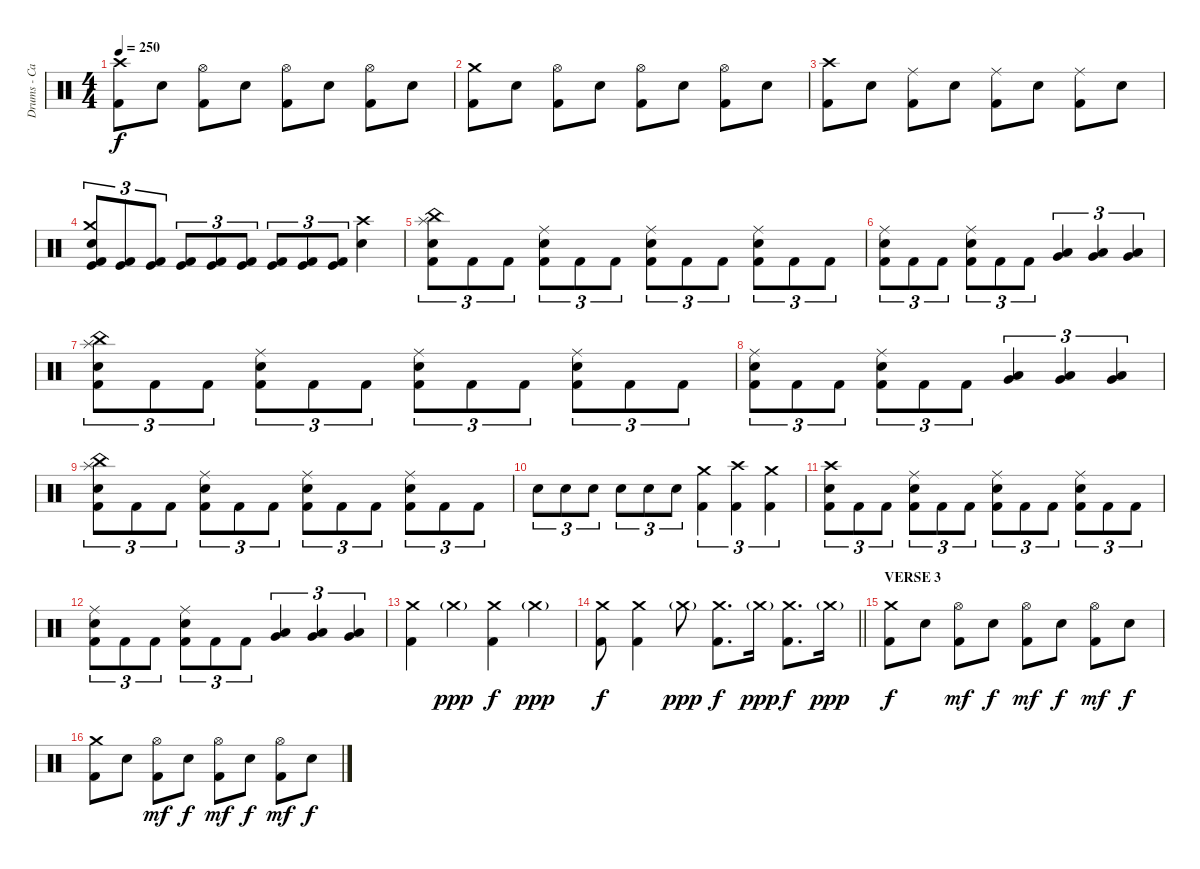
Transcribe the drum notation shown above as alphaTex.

\track ("Drums - Carlos Cruz" "Drums - Ca") {instrument percussion}
\staff {score}
\articulation defaults
\ts (4 4)
\tempo 250
\clef neutral
\ks c
("Crash high (hit)" "Kick (hit) 2").8{dy f} "Snare (hit) 2".8 ("Hi-Hat (open)" "Kick (hit) 2").8 "Snare (hit) 2".8 ("Hi-Hat (open)" "Kick (hit) 2").8 "Snare (hit) 2".8 ("Hi-Hat (open)" "Kick (hit) 2").8 "Snare (hit) 2".8 |
("Crash medium (hit)" "Kick (hit) 2").8 "Snare (hit) 2".8 ("Hi-Hat (open)" "Kick (hit) 2").8 "Snare (hit) 2".8 ("Hi-Hat (open)" "Kick (hit) 2").8 "Snare (hit) 2".8 ("Hi-Hat (open)" "Kick (hit) 2").8 "Snare (hit) 2".8 |
("Crash high (hit)" "Kick (hit) 2").8 "Snare (hit) 2".8 ("Ride (middle)" "Kick (hit) 2").8 "Snare (hit) 2".8 ("Ride (middle)" "Kick (hit) 2").8 "Snare (hit) 2".8 ("Ride (middle)" "Kick (hit) 2").8 "Snare (hit) 2".8 |
("Crash medium (hit)" "Snare (hit) 2" "Kick (hit)" "Kick (hit) 2").8{tu (3 2)} ("Kick (hit)" "Kick (hit) 2").8{tu (3 2)} ("Kick (hit)" "Kick (hit) 2").8{tu (3 2)} ("Kick (hit)" "Kick (hit) 2").8{tu (3 2)} ("Kick (hit)" "Kick (hit) 2").8{tu (3 2)} ("Kick (hit)" "Kick (hit) 2").8{tu (3 2)} ("Kick (hit)" "Kick (hit) 2").8{tu (3 2)} ("Kick (hit)" "Kick (hit) 2").8{tu (3 2)} ("Kick (hit)" "Kick (hit) 2").8{tu (3 2)} ("Crash high (hit)" "Snare (hit) 2").4 |
("China (hit)" "Splash (hit)" "Snare (hit) 2" "Kick (hit) 2").8{tu (3 2)} "Kick (hit) 2".8{tu (3 2)} "Kick (hit) 2".8{tu (3 2)} ("Ride (middle)" "Snare (hit) 2" "Kick (hit) 2").8{tu (3 2)} "Kick (hit) 2".8{tu (3 2)} "Kick (hit) 2".8{tu (3 2)} ("Ride (middle)" "Snare (hit) 2" "Kick (hit) 2").8{tu (3 2)} "Kick (hit) 2".8{tu (3 2)} "Kick (hit) 2".8{tu (3 2)} ("Ride (middle)" "Snare (hit) 2" "Kick (hit) 2").8{tu (3 2)} "Kick (hit) 2".8{tu (3 2)} "Kick (hit) 2".8{tu (3 2)} |
("Ride (middle)" "Snare (hit) 2" "Kick (hit) 2").8{tu (3 2)} "Kick (hit) 2".8{tu (3 2)} "Kick (hit) 2".8{tu (3 2)} ("Ride (middle)" "Snare (hit) 2" "Kick (hit) 2").8{tu (3 2)} "Kick (hit) 2".8{tu (3 2)} "Kick (hit) 2".8{tu (3 2)} ("Low Tom (hit)" "Very Low Tom (hit)").4{tu (3 2)} ("Low Tom (hit)" "Very Low Tom (hit)").4{tu (3 2)} ("Low Tom (hit)" "Very Low Tom (hit)").4{tu (3 2)} |
("China (hit)" "Splash (hit)" "Snare (hit) 2" "Kick (hit) 2").8{tu (3 2)} "Kick (hit) 2".8{tu (3 2)} "Kick (hit) 2".8{tu (3 2)} ("Ride (middle)" "Snare (hit) 2" "Kick (hit) 2").8{tu (3 2)} "Kick (hit) 2".8{tu (3 2)} "Kick (hit) 2".8{tu (3 2)} ("Ride (middle)" "Snare (hit) 2" "Kick (hit) 2").8{tu (3 2)} "Kick (hit) 2".8{tu (3 2)} "Kick (hit) 2".8{tu (3 2)} ("Ride (middle)" "Snare (hit) 2" "Kick (hit) 2").8{tu (3 2)} "Kick (hit) 2".8{tu (3 2)} "Kick (hit) 2".8{tu (3 2)} |
("Ride (middle)" "Snare (hit) 2" "Kick (hit) 2").8{tu (3 2)} "Kick (hit) 2".8{tu (3 2)} "Kick (hit) 2".8{tu (3 2)} ("Ride (middle)" "Snare (hit) 2" "Kick (hit) 2").8{tu (3 2)} "Kick (hit) 2".8{tu (3 2)} "Kick (hit) 2".8{tu (3 2)} ("Low Tom (hit)" "Very Low Tom (hit)").4{tu (3 2)} ("Low Tom (hit)" "Very Low Tom (hit)").4{tu (3 2)} ("Low Tom (hit)" "Very Low Tom (hit)").4{tu (3 2)} |
("China (hit)" "Splash (hit)" "Snare (hit) 2" "Kick (hit) 2").8{tu (3 2)} "Kick (hit) 2".8{tu (3 2)} "Kick (hit) 2".8{tu (3 2)} ("Ride (middle)" "Snare (hit) 2" "Kick (hit) 2").8{tu (3 2)} "Kick (hit) 2".8{tu (3 2)} "Kick (hit) 2".8{tu (3 2)} ("Ride (middle)" "Snare (hit) 2" "Kick (hit) 2").8{tu (3 2)} "Kick (hit) 2".8{tu (3 2)} "Kick (hit) 2".8{tu (3 2)} ("Ride (middle)" "Snare (hit) 2" "Kick (hit) 2").8{tu (3 2)} "Kick (hit) 2".8{tu (3 2)} "Kick (hit) 2".8{tu (3 2)} |
"Snare (hit) 2".8{tu (3 2)} "Snare (hit) 2".8{tu (3 2)} "Snare (hit) 2".8{tu (3 2)} "Snare (hit) 2".8{tu (3 2)} "Snare (hit) 2".8{tu (3 2)} "Snare (hit) 2".8{tu (3 2)} ("Crash medium (hit)" "Kick (hit) 2").4{tu (3 2)} ("Crash high (hit)" "Kick (hit) 2").4{tu (3 2)} ("Crash medium (hit)" "Kick (hit) 2").4{tu (3 2)} |
("Crash high (hit)" "Snare (hit) 2" "Kick (hit) 2").8{tu (3 2)} "Kick (hit) 2".8{tu (3 2)} "Kick (hit) 2".8{tu (3 2)} ("Ride (middle)" "Snare (hit) 2" "Kick (hit) 2").8{tu (3 2)} "Kick (hit) 2".8{tu (3 2)} "Kick (hit) 2".8{tu (3 2)} ("Ride (middle)" "Snare (hit) 2" "Kick (hit) 2").8{tu (3 2)} "Kick (hit) 2".8{tu (3 2)} "Kick (hit) 2".8{tu (3 2)} ("Ride (middle)" "Snare (hit) 2" "Kick (hit) 2").8{tu (3 2)} "Kick (hit) 2".8{tu (3 2)} "Kick (hit) 2".8{tu (3 2)} |
("Ride (middle)" "Snare (hit) 2" "Kick (hit) 2").8{tu (3 2)} "Kick (hit) 2".8{tu (3 2)} "Kick (hit) 2".8{tu (3 2)} ("Ride (middle)" "Snare (hit) 2" "Kick (hit) 2").8{tu (3 2)} "Kick (hit) 2".8{tu (3 2)} "Kick (hit) 2".8{tu (3 2)} ("Low Tom (hit)" "Very Low Tom (hit)").4{tu (3 2)} ("Low Tom (hit)" "Very Low Tom (hit)").4{tu (3 2)} ("Low Tom (hit)" "Very Low Tom (hit)").4{tu (3 2)} |
("Crash medium (hit)" "Kick (hit) 2").4 "Crash medium (hit)"{g}.4{dy ppp} ("Crash medium (hit)" "Kick (hit) 2").4{dy f} "Crash medium (hit)"{g}.4{dy ppp} |
\barLineRight lightlight
("Crash medium (hit)" "Kick (hit) 2").8{dy f} ("Crash medium (hit)" "Kick (hit) 2").4 "Crash medium (hit)"{g}.8{dy ppp} ("Crash medium (hit)" "Kick (hit) 2").8{d dy f} "Crash medium (hit)"{g}.16{dy ppp} ("Crash medium (hit)" "Kick (hit) 2").8{d dy f} "Crash medium (hit)"{g}.16{dy ppp} |
\section ("" "VERSE 3")
("Crash medium (hit)" "Kick (hit) 2").8{dy f} "Snare (hit) 2".8 ("Hi-Hat (open)" "Kick (hit) 2").8{dy mf} "Snare (hit) 2".8{dy f} ("Hi-Hat (open)" "Kick (hit) 2").8{dy mf} "Snare (hit) 2".8{dy f} ("Hi-Hat (open)" "Kick (hit) 2").8{dy mf} "Snare (hit) 2".8{dy f} |
("Crash medium (hit)" "Kick (hit) 2").8 "Snare (hit) 2".8 ("Hi-Hat (open)" "Kick (hit) 2").8{dy mf} "Snare (hit) 2".8{dy f} ("Hi-Hat (open)" "Kick (hit) 2").8{dy mf} "Snare (hit) 2".8{dy f} ("Hi-Hat (open)" "Kick (hit) 2").8{dy mf} "Snare (hit) 2".8{dy f}
